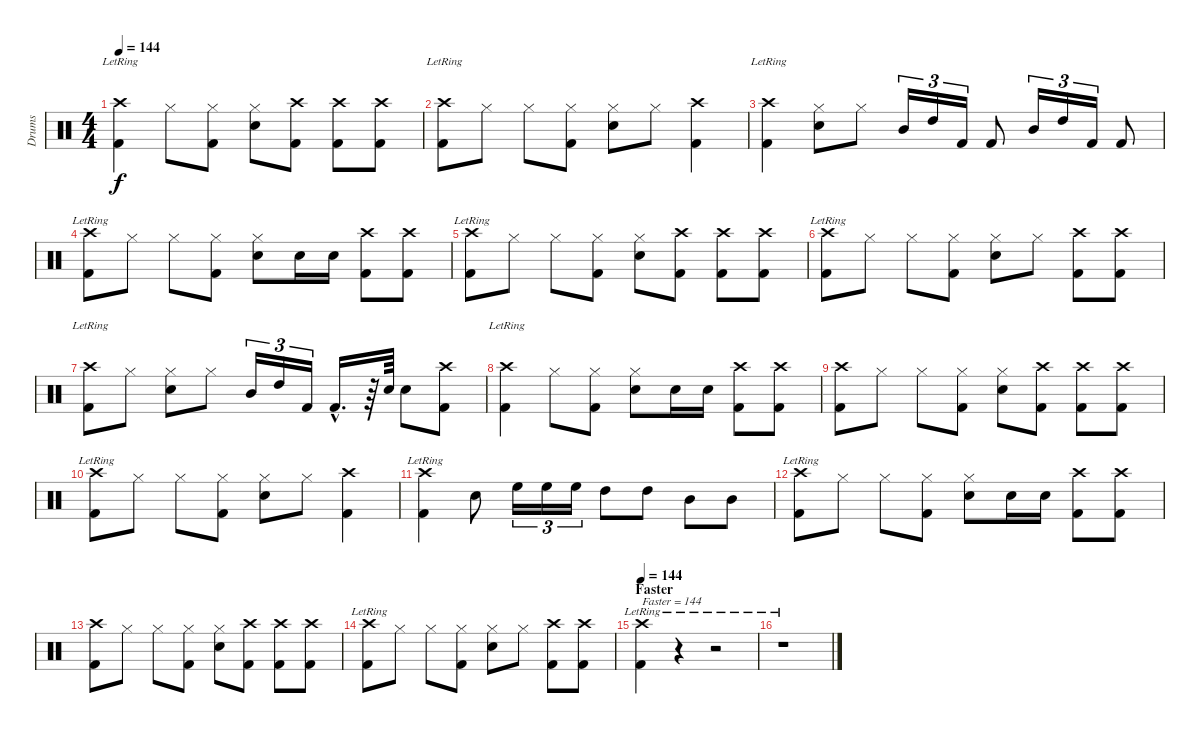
\track ("Drums" "Drums") {instrument percussion}
\staff {score}
\articulation defaults
\ts (4 4)
\tempo 144
\clef neutral
\ks c
("Crash high (hit)"{lr} "Kick (hit) 2").4{dy f} "Hi-Hat (closed)".8 ("Hi-Hat (closed)" "Kick (hit) 2").8 ("Hi-Hat (closed)" "Snare (hit) 2").8 ("Crash high (hit)" "Kick (hit) 2").8 ("Crash high (hit)" "Kick (hit) 2").8 ("Crash high (hit)" "Kick (hit) 2").8 |
("Crash high (hit)"{lr} "Kick (hit) 2").8 "Hi-Hat (closed)".8 "Hi-Hat (closed)".8 ("Hi-Hat (closed)" "Kick (hit) 2").8 ("Hi-Hat (closed)" "Snare (hit) 2").8 "Hi-Hat (closed)".8 ("Crash high (hit)" "Kick (hit) 2").4 |
("Crash high (hit)"{lr} "Kick (hit) 2").4 ("Hi-Hat (closed)" "Snare (hit) 2").8 "Hi-Hat (closed)".8 "Mid Tom (hit)".16{tu (3 2)} "High Tom (hit)".16{tu (3 2)} "Kick (hit) 2".16{tu (3 2)} "Kick (hit) 2".8 "Mid Tom (hit)".16{tu (3 2)} "High Tom (hit)".16{tu (3 2)} "Kick (hit) 2".16{tu (3 2)} "Kick (hit) 2".8 |
("Crash high (hit)"{lr} "Kick (hit) 2").8 "Hi-Hat (closed)".8 "Hi-Hat (closed)".8 ("Hi-Hat (closed)" "Kick (hit) 2").8 ("Hi-Hat (closed)" "Snare (hit) 2").8 "Snare (hit) 2".16 "Snare (hit) 2".16 ("Crash high (hit)" "Kick (hit) 2").8 ("Crash high (hit)" "Kick (hit) 2").8 |
("Crash high (hit)"{lr} "Kick (hit) 2").8 "Hi-Hat (closed)".8 "Hi-Hat (closed)".8 ("Hi-Hat (closed)" "Kick (hit) 2").8 ("Hi-Hat (closed)" "Snare (hit) 2").8 ("Crash high (hit)" "Kick (hit) 2").8 ("Crash high (hit)" "Kick (hit) 2").8 ("Crash high (hit)" "Kick (hit) 2").8 |
("Crash high (hit)"{lr} "Kick (hit) 2").8 "Hi-Hat (closed)".8 "Hi-Hat (closed)".8 ("Hi-Hat (closed)" "Kick (hit) 2").8 ("Hi-Hat (closed)" "Snare (hit) 2").8 "Hi-Hat (closed)".8 ("Crash high (hit)" "Kick (hit) 2").8 ("Crash high (hit)" "Kick (hit) 2").8 |
("Crash high (hit)"{lr} "Kick (hit) 2").8 "Hi-Hat (closed)".8 ("Hi-Hat (closed)" "Snare (hit) 2").8 "Hi-Hat (closed)".8 "Mid Tom (hit)".16{tu (3 2)} "High Tom (hit)".16{tu (3 2)} "Kick (hit) 2".16{tu (3 2)} "Kick (hit) 2"{hac}.16{d} r.64 "Snare (hit) 2".64 "Snare (hit) 2".8 ("Crash high (hit)" "Kick (hit) 2").8 |
("Crash high (hit)"{lr} "Kick (hit) 2").4 "Hi-Hat (closed)".8 ("Hi-Hat (closed)" "Kick (hit) 2").8 ("Hi-Hat (closed)" "Snare (hit) 2").8 "Snare (hit) 2".16 "Snare (hit) 2".16 ("Crash high (hit)" "Kick (hit) 2").8 ("Crash high (hit)" "Kick (hit) 2").8 |
("Crash high (hit)" "Kick (hit) 2").8 "Hi-Hat (closed)".8 "Hi-Hat (closed)".8 ("Hi-Hat (closed)" "Kick (hit) 2").8 ("Hi-Hat (closed)" "Snare (hit) 2").8 ("Crash high (hit)" "Kick (hit) 2").8 ("Crash high (hit)" "Kick (hit) 2").8 ("Crash high (hit)" "Kick (hit) 2").8 |
("Crash high (hit)"{lr} "Kick (hit) 2").8 "Hi-Hat (closed)".8 "Hi-Hat (closed)".8 ("Hi-Hat (closed)" "Kick (hit) 2").8 ("Hi-Hat (closed)" "Snare (hit) 2").8 "Hi-Hat (closed)".8 ("Crash high (hit)" "Kick (hit) 2").4 |
("Crash high (hit)"{lr} "Kick (hit) 2").4 "Snare (hit) 2".8 "High Floor Tom (hit)".16{tu (3 2)} "High Floor Tom (hit)".16{tu (3 2)} "High Floor Tom (hit)".16{tu (3 2)} "High Tom (hit)".8 "High Tom (hit)".8 "Mid Tom (hit)".8 "Mid Tom (hit)".8 |
("Crash high (hit)"{lr} "Kick (hit) 2").8 "Hi-Hat (closed)".8 "Hi-Hat (closed)".8 ("Hi-Hat (closed)" "Kick (hit) 2").8 ("Hi-Hat (closed)" "Snare (hit) 2").8 "Snare (hit) 2".16 "Snare (hit) 2".16 ("Crash high (hit)" "Kick (hit) 2").8 ("Crash high (hit)" "Kick (hit) 2").8 |
("Crash high (hit)" "Kick (hit) 2").8 "Hi-Hat (closed)".8 "Hi-Hat (closed)".8 ("Hi-Hat (closed)" "Kick (hit) 2").8 ("Hi-Hat (closed)" "Snare (hit) 2").8 ("Crash high (hit)" "Kick (hit) 2").8 ("Crash high (hit)" "Kick (hit) 2").8 ("Crash high (hit)" "Kick (hit) 2").8 |
("Crash high (hit)"{lr} "Kick (hit) 2").8 "Hi-Hat (closed)".8 "Hi-Hat (closed)".8 ("Hi-Hat (closed)" "Kick (hit) 2").8 ("Hi-Hat (closed)" "Snare (hit) 2").8 "Hi-Hat (closed)".8 ("Crash high (hit)" "Kick (hit) 2").8 ("Crash high (hit)" "Kick (hit) 2").8 |
\section ("" "Faster")
\tempo 144
("Crash high (hit)"{lr} "Kick (hit) 2").4{txt "Faster = 144"} r.4 r.2 |
r.1
